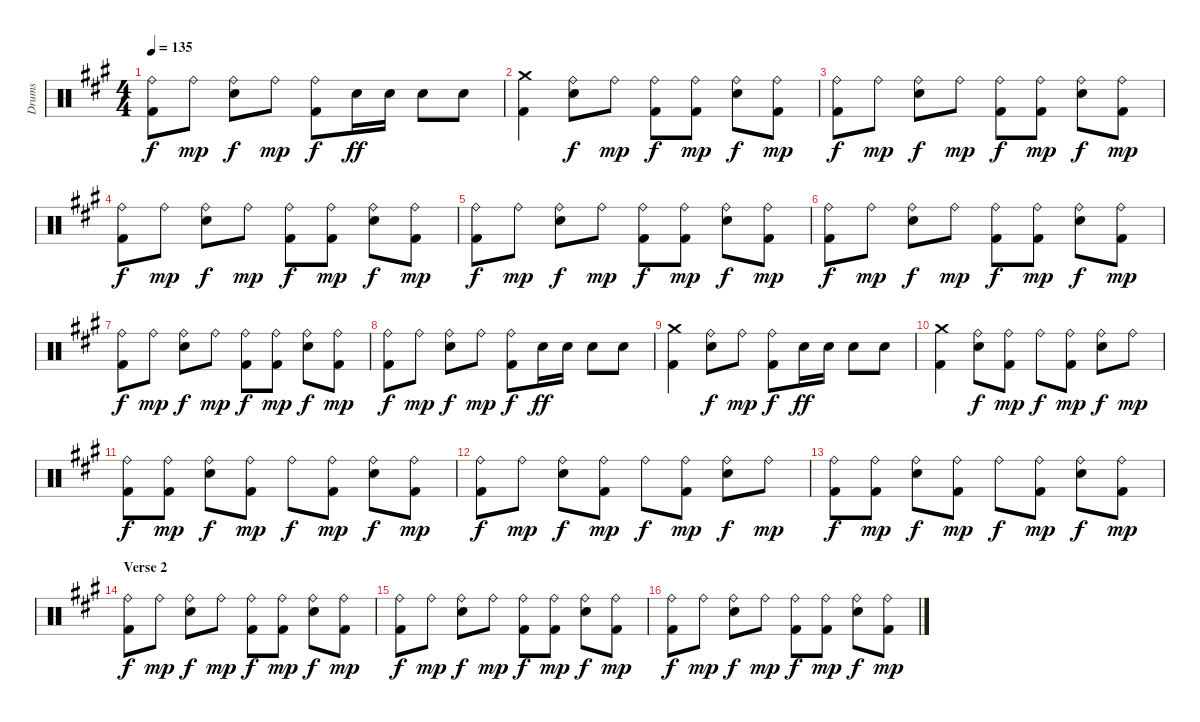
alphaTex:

\track ("Drums" "Drums") {instrument percussion}
\staff {score}
\articulation defaults
\ts (4 4)
\tempo 135
\clef neutral
\ks a
("Ride (bell)" "Kick (hit) 2").8{dy f} "Ride (bell)".8{dy mp} ("Ride (bell)" "Electric Snare (hit)").8{dy f} "Ride (bell)".8{dy mp} ("Ride (bell)" "Kick (hit) 2").8{dy f} "Electric Snare (hit)".16{dy ff} "Electric Snare (hit)".16 "Electric Snare (hit)".8 "Electric Snare (hit)".8 |
("Crash medium (hit)" "Kick (hit) 2").4 ("Ride (bell)" "Electric Snare (hit)").8{dy f} "Ride (bell)".8{dy mp} ("Ride (bell)" "Kick (hit) 2").8{dy f} ("Ride (bell)" "Kick (hit) 2").8{dy mp} ("Ride (bell)" "Electric Snare (hit)").8{dy f} ("Ride (bell)" "Kick (hit) 2").8{dy mp} |
("Ride (bell)" "Kick (hit) 2").8{dy f} "Ride (bell)".8{dy mp} ("Ride (bell)" "Electric Snare (hit)").8{dy f} "Ride (bell)".8{dy mp} ("Ride (bell)" "Kick (hit) 2").8{dy f} ("Ride (bell)" "Kick (hit) 2").8{dy mp} ("Ride (bell)" "Electric Snare (hit)").8{dy f} ("Ride (bell)" "Kick (hit) 2").8{dy mp} |
("Ride (bell)" "Kick (hit) 2").8{dy f} "Ride (bell)".8{dy mp} ("Ride (bell)" "Electric Snare (hit)").8{dy f} "Ride (bell)".8{dy mp} ("Ride (bell)" "Kick (hit) 2").8{dy f} ("Ride (bell)" "Kick (hit) 2").8{dy mp} ("Ride (bell)" "Electric Snare (hit)").8{dy f} ("Ride (bell)" "Kick (hit) 2").8{dy mp} |
("Ride (bell)" "Kick (hit) 2").8{dy f} "Ride (bell)".8{dy mp} ("Ride (bell)" "Electric Snare (hit)").8{dy f} "Ride (bell)".8{dy mp} ("Ride (bell)" "Kick (hit) 2").8{dy f} ("Ride (bell)" "Kick (hit) 2").8{dy mp} ("Ride (bell)" "Electric Snare (hit)").8{dy f} ("Ride (bell)" "Kick (hit) 2").8{dy mp} |
("Ride (bell)" "Kick (hit) 2").8{dy f} "Ride (bell)".8{dy mp} ("Ride (bell)" "Electric Snare (hit)").8{dy f} "Ride (bell)".8{dy mp} ("Ride (bell)" "Kick (hit) 2").8{dy f} ("Ride (bell)" "Kick (hit) 2").8{dy mp} ("Ride (bell)" "Electric Snare (hit)").8{dy f} ("Ride (bell)" "Kick (hit) 2").8{dy mp} |
("Ride (bell)" "Kick (hit) 2").8{dy f} "Ride (bell)".8{dy mp} ("Ride (bell)" "Electric Snare (hit)").8{dy f} "Ride (bell)".8{dy mp} ("Ride (bell)" "Kick (hit) 2").8{dy f} ("Ride (bell)" "Kick (hit) 2").8{dy mp} ("Ride (bell)" "Electric Snare (hit)").8{dy f} ("Ride (bell)" "Kick (hit) 2").8{dy mp} |
("Ride (bell)" "Kick (hit) 2").8{dy f} "Ride (bell)".8{dy mp} ("Ride (bell)" "Electric Snare (hit)").8{dy f} "Ride (bell)".8{dy mp} ("Ride (bell)" "Kick (hit) 2").8{dy f} "Electric Snare (hit)".16{dy ff} "Electric Snare (hit)".16 "Electric Snare (hit)".8 "Electric Snare (hit)".8 |
("Crash medium (hit)" "Kick (hit) 2").4 ("Ride (bell)" "Electric Snare (hit)").8{dy f} "Ride (bell)".8{dy mp} ("Ride (bell)" "Kick (hit) 2").8{dy f} "Electric Snare (hit)".16{dy ff} "Electric Snare (hit)".16 "Electric Snare (hit)".8 "Electric Snare (hit)".8 |
("Crash medium (hit)" "Kick (hit) 2").4 ("Ride (bell)" "Electric Snare (hit)").8{dy f} ("Ride (bell)" "Kick (hit) 2").8{dy mp} "Ride (bell)".8{dy f} ("Ride (bell)" "Kick (hit) 2").8{dy mp} ("Ride (bell)" "Electric Snare (hit)").8{dy f} "Ride (bell)".8{dy mp} |
("Ride (bell)" "Kick (hit) 2").8{dy f} ("Ride (bell)" "Kick (hit) 2").8{dy mp} ("Ride (bell)" "Electric Snare (hit)").8{dy f} ("Ride (bell)" "Kick (hit) 2").8{dy mp} "Ride (bell)".8{dy f} ("Ride (bell)" "Kick (hit) 2").8{dy mp} ("Ride (bell)" "Electric Snare (hit)").8{dy f} ("Ride (bell)" "Kick (hit) 2").8{dy mp} |
("Ride (bell)" "Kick (hit) 2").8{dy f} "Ride (bell)".8{dy mp} ("Ride (bell)" "Electric Snare (hit)").8{dy f} ("Ride (bell)" "Kick (hit) 2").8{dy mp} "Ride (bell)".8{dy f} ("Ride (bell)" "Kick (hit) 2").8{dy mp} ("Ride (bell)" "Electric Snare (hit)").8{dy f} "Ride (bell)".8{dy mp} |
("Ride (bell)" "Kick (hit) 2").8{dy f} ("Ride (bell)" "Kick (hit) 2").8{dy mp} ("Ride (bell)" "Electric Snare (hit)").8{dy f} ("Ride (bell)" "Kick (hit) 2").8{dy mp} "Ride (bell)".8{dy f} ("Ride (bell)" "Kick (hit) 2").8{dy mp} ("Ride (bell)" "Electric Snare (hit)").8{dy f} ("Ride (bell)" "Kick (hit) 2").8{dy mp} |
\section ("" "Verse 2")
("Ride (bell)" "Kick (hit) 2").8{dy f} "Ride (bell)".8{dy mp} ("Ride (bell)" "Electric Snare (hit)").8{dy f} "Ride (bell)".8{dy mp} ("Ride (bell)" "Kick (hit) 2").8{dy f} ("Ride (bell)" "Kick (hit) 2").8{dy mp} ("Ride (bell)" "Electric Snare (hit)").8{dy f} ("Ride (bell)" "Kick (hit) 2").8{dy mp} |
("Ride (bell)" "Kick (hit) 2").8{dy f} "Ride (bell)".8{dy mp} ("Ride (bell)" "Electric Snare (hit)").8{dy f} "Ride (bell)".8{dy mp} ("Ride (bell)" "Kick (hit) 2").8{dy f} ("Ride (bell)" "Kick (hit) 2").8{dy mp} ("Ride (bell)" "Electric Snare (hit)").8{dy f} ("Ride (bell)" "Kick (hit) 2").8{dy mp} |
("Ride (bell)" "Kick (hit) 2").8{dy f} "Ride (bell)".8{dy mp} ("Ride (bell)" "Electric Snare (hit)").8{dy f} "Ride (bell)".8{dy mp} ("Ride (bell)" "Kick (hit) 2").8{dy f} ("Ride (bell)" "Kick (hit) 2").8{dy mp} ("Ride (bell)" "Electric Snare (hit)").8{dy f} ("Ride (bell)" "Kick (hit) 2").8{dy mp}
